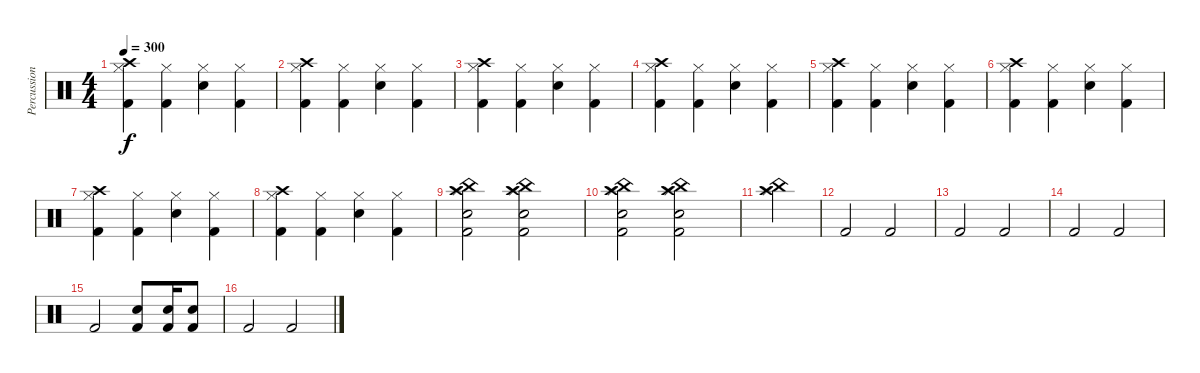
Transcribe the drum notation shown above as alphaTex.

\track ("Percussion" "Percussion") {instrument percussion}
\staff {score}
\articulation defaults
\ts (4 4)
\tempo 300
\clef neutral
\ks c
("Crash high (hit)" "Hi-Hat (closed)" "Kick (hit) 2").4{dy f} ("Hi-Hat (closed)" "Kick (hit) 2").4 ("Hi-Hat (closed)" "Snare (hit) 2").4 ("Hi-Hat (closed)" "Kick (hit) 2").4 |
("Crash high (hit)" "Hi-Hat (closed)" "Kick (hit) 2").4 ("Hi-Hat (closed)" "Kick (hit) 2").4 ("Hi-Hat (closed)" "Snare (hit) 2").4 ("Hi-Hat (closed)" "Kick (hit) 2").4 |
("Crash high (hit)" "Hi-Hat (closed)" "Kick (hit) 2").4 ("Hi-Hat (closed)" "Kick (hit) 2").4 ("Hi-Hat (closed)" "Snare (hit) 2").4 ("Hi-Hat (closed)" "Kick (hit) 2").4 |
("Crash high (hit)" "Hi-Hat (closed)" "Kick (hit) 2").4 ("Hi-Hat (closed)" "Kick (hit) 2").4 ("Hi-Hat (closed)" "Snare (hit) 2").4 ("Hi-Hat (closed)" "Kick (hit) 2").4 |
("Crash high (hit)" "Hi-Hat (closed)" "Kick (hit) 2").4 ("Hi-Hat (closed)" "Kick (hit) 2").4 ("Hi-Hat (closed)" "Snare (hit) 2").4 ("Hi-Hat (closed)" "Kick (hit) 2").4 |
("Crash high (hit)" "Hi-Hat (closed)" "Kick (hit) 2").4 ("Hi-Hat (closed)" "Kick (hit) 2").4 ("Hi-Hat (closed)" "Snare (hit) 2").4 ("Hi-Hat (closed)" "Kick (hit) 2").4 |
("Crash high (hit)" "Hi-Hat (closed)" "Kick (hit) 2").4 ("Hi-Hat (closed)" "Kick (hit) 2").4 ("Hi-Hat (closed)" "Snare (hit) 2").4 ("Hi-Hat (closed)" "Kick (hit) 2").4 |
("Crash high (hit)" "Hi-Hat (closed)" "Kick (hit) 2").4 ("Hi-Hat (closed)" "Kick (hit) 2").4 ("Hi-Hat (closed)" "Snare (hit) 2").4 ("Hi-Hat (closed)" "Kick (hit) 2").4 |
("Snare (hit) 2" "Kick (hit) 2" "Crash high (hit)" "Splash (hit)" "China (hit)").2 ("Snare (hit) 2" "Kick (hit) 2" "Crash high (hit)" "Splash (hit)" "China (hit)").2 |
("Snare (hit) 2" "Kick (hit) 2" "Crash high (hit)" "Splash (hit)" "China (hit)").2 ("Snare (hit) 2" "Kick (hit) 2" "Crash high (hit)" "Splash (hit)" "China (hit)").2 |
("Crash high (hit)" "Splash (hit)" "China (hit)").4 |
"Kick (hit) 2".2 "Kick (hit) 2".2 |
"Kick (hit) 2".2 "Kick (hit) 2".2 |
"Kick (hit) 2".2 "Kick (hit) 2".2 |
"Kick (hit) 2".2 ("Kick (hit) 2" "Snare (hit) 2").8 ("Kick (hit) 2" "Snare (hit) 2").16 ("Kick (hit) 2" "Snare (hit) 2").8 |
"Kick (hit) 2".2 "Kick (hit) 2".2
